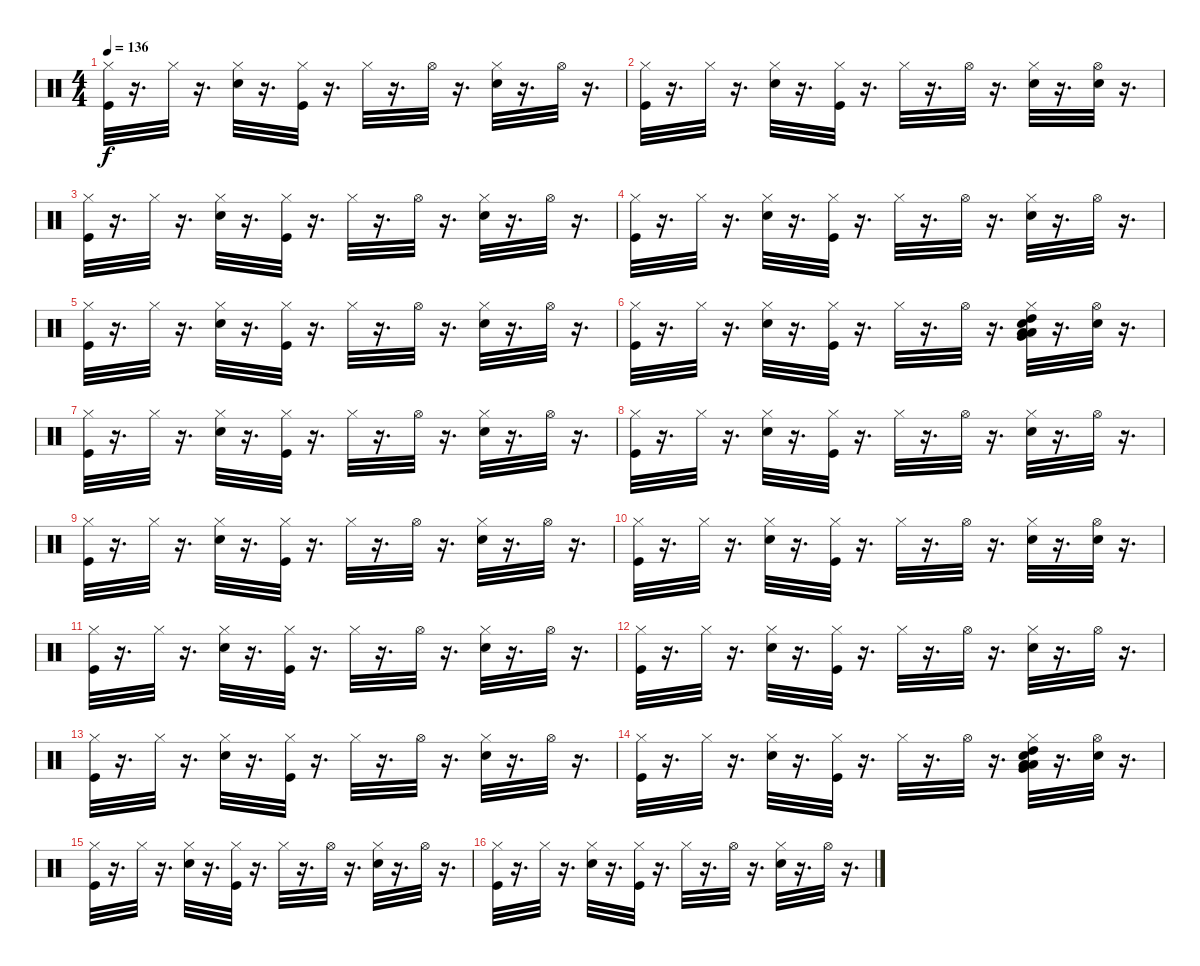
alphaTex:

\track "" {instrument percussion}
\staff {score}
\articulation defaults
\ts (4 4)
\tempo 136
\clef neutral
\ks c
("Kick (hit)" "Hi-Hat (closed)").32{dy f} r.16{d} "Hi-Hat (closed)".32 r.16{d} ("Snare (hit) 2" "Hi-Hat (closed)").32 r.16{d} ("Kick (hit)" "Hi-Hat (closed)").32 r.16{d} "Hi-Hat (closed)".32 r.16{d} "Hi-Hat (open)".32 r.16{d} ("Snare (hit) 2" "Hi-Hat (closed)").32 r.16{d} "Hi-Hat (open)".32 r.16{d} |
("Kick (hit)" "Hi-Hat (closed)").32 r.16{d} "Hi-Hat (closed)".32 r.16{d} ("Snare (hit) 2" "Hi-Hat (closed)").32 r.16{d} ("Kick (hit)" "Hi-Hat (closed)").32 r.16{d} "Hi-Hat (closed)".32 r.16{d} "Hi-Hat (open)".32 r.16{d} ("Snare (hit) 2" "Hi-Hat (closed)").32 r.16{d} ("Snare (hit) 2" "Hi-Hat (open)").32 r.16{d} |
("Kick (hit)" "Hi-Hat (closed)").32 r.16{d} "Hi-Hat (closed)".32 r.16{d} ("Snare (hit) 2" "Hi-Hat (closed)").32 r.16{d} ("Kick (hit)" "Hi-Hat (closed)").32 r.16{d} "Hi-Hat (closed)".32 r.16{d} "Hi-Hat (open)".32 r.16{d} ("Snare (hit) 2" "Hi-Hat (closed)").32 r.16{d} "Hi-Hat (open)".32 r.16{d} |
("Kick (hit)" "Hi-Hat (closed)").32 r.16{d} "Hi-Hat (closed)".32 r.16{d} ("Snare (hit) 2" "Hi-Hat (closed)").32 r.16{d} ("Kick (hit)" "Hi-Hat (closed)").32 r.16{d} "Hi-Hat (closed)".32 r.16{d} "Hi-Hat (open)".32 r.16{d} ("Snare (hit) 2" "Hi-Hat (closed)").32 r.16{d} "Hi-Hat (open)".32 r.16{d} |
("Kick (hit)" "Hi-Hat (closed)").32 r.16{d} "Hi-Hat (closed)".32 r.16{d} ("Snare (hit) 2" "Hi-Hat (closed)").32 r.16{d} ("Kick (hit)" "Hi-Hat (closed)").32 r.16{d} "Hi-Hat (closed)".32 r.16{d} "Hi-Hat (open)".32 r.16{d} ("Snare (hit) 2" "Hi-Hat (closed)").32 r.16{d} "Hi-Hat (open)".32 r.16{d} |
("Kick (hit)" "Hi-Hat (closed)").32 r.16{d} "Hi-Hat (closed)".32 r.16{d} ("Snare (hit) 2" "Hi-Hat (closed)").32 r.16{d} ("Kick (hit)" "Hi-Hat (closed)").32 r.16{d} "Hi-Hat (closed)".32 r.16{d} "Hi-Hat (open)".32 r.16{d} ("High Tom (hit)" "Low Tom (hit)" "Very Low Tom (hit)" "Low Floor Tom (hit)" "Snare (hit) 2" "Hi-Hat (closed)").32 r.16{d} ("Snare (hit) 2" "Hi-Hat (open)").32 r.16{d} |
("Kick (hit)" "Hi-Hat (closed)").32 r.16{d} "Hi-Hat (closed)".32 r.16{d} ("Snare (hit) 2" "Hi-Hat (closed)").32 r.16{d} ("Kick (hit)" "Hi-Hat (closed)").32 r.16{d} "Hi-Hat (closed)".32 r.16{d} "Hi-Hat (open)".32 r.16{d} ("Snare (hit) 2" "Hi-Hat (closed)").32 r.16{d} "Hi-Hat (open)".32 r.16{d} |
("Kick (hit)" "Hi-Hat (closed)").32 r.16{d} "Hi-Hat (closed)".32 r.16{d} ("Snare (hit) 2" "Hi-Hat (closed)").32 r.16{d} ("Kick (hit)" "Hi-Hat (closed)").32 r.16{d} "Hi-Hat (closed)".32 r.16{d} "Hi-Hat (open)".32 r.16{d} ("Snare (hit) 2" "Hi-Hat (closed)").32 r.16{d} "Hi-Hat (open)".32 r.16{d} |
("Kick (hit)" "Hi-Hat (closed)").32 r.16{d} "Hi-Hat (closed)".32 r.16{d} ("Snare (hit) 2" "Hi-Hat (closed)").32 r.16{d} ("Kick (hit)" "Hi-Hat (closed)").32 r.16{d} "Hi-Hat (closed)".32 r.16{d} "Hi-Hat (open)".32 r.16{d} ("Snare (hit) 2" "Hi-Hat (closed)").32 r.16{d} "Hi-Hat (open)".32 r.16{d} |
("Kick (hit)" "Hi-Hat (closed)").32 r.16{d} "Hi-Hat (closed)".32 r.16{d} ("Snare (hit) 2" "Hi-Hat (closed)").32 r.16{d} ("Kick (hit)" "Hi-Hat (closed)").32 r.16{d} "Hi-Hat (closed)".32 r.16{d} "Hi-Hat (open)".32 r.16{d} ("Snare (hit) 2" "Hi-Hat (closed)").32 r.16{d} ("Snare (hit) 2" "Hi-Hat (open)").32 r.16{d} |
("Kick (hit)" "Hi-Hat (closed)").32 r.16{d} "Hi-Hat (closed)".32 r.16{d} ("Snare (hit) 2" "Hi-Hat (closed)").32 r.16{d} ("Kick (hit)" "Hi-Hat (closed)").32 r.16{d} "Hi-Hat (closed)".32 r.16{d} "Hi-Hat (open)".32 r.16{d} ("Snare (hit) 2" "Hi-Hat (closed)").32 r.16{d} "Hi-Hat (open)".32 r.16{d} |
("Kick (hit)" "Hi-Hat (closed)").32 r.16{d} "Hi-Hat (closed)".32 r.16{d} ("Snare (hit) 2" "Hi-Hat (closed)").32 r.16{d} ("Kick (hit)" "Hi-Hat (closed)").32 r.16{d} "Hi-Hat (closed)".32 r.16{d} "Hi-Hat (open)".32 r.16{d} ("Snare (hit) 2" "Hi-Hat (closed)").32 r.16{d} "Hi-Hat (open)".32 r.16{d} |
("Kick (hit)" "Hi-Hat (closed)").32 r.16{d} "Hi-Hat (closed)".32 r.16{d} ("Snare (hit) 2" "Hi-Hat (closed)").32 r.16{d} ("Kick (hit)" "Hi-Hat (closed)").32 r.16{d} "Hi-Hat (closed)".32 r.16{d} "Hi-Hat (open)".32 r.16{d} ("Snare (hit) 2" "Hi-Hat (closed)").32 r.16{d} "Hi-Hat (open)".32 r.16{d} |
("Kick (hit)" "Hi-Hat (closed)").32 r.16{d} "Hi-Hat (closed)".32 r.16{d} ("Snare (hit) 2" "Hi-Hat (closed)").32 r.16{d} ("Kick (hit)" "Hi-Hat (closed)").32 r.16{d} "Hi-Hat (closed)".32 r.16{d} "Hi-Hat (open)".32 r.16{d} ("High Tom (hit)" "Low Tom (hit)" "Very Low Tom (hit)" "Low Floor Tom (hit)" "Snare (hit) 2" "Hi-Hat (closed)").32 r.16{d} ("Snare (hit) 2" "Hi-Hat (open)").32 r.16{d} |
("Kick (hit)" "Hi-Hat (closed)").32 r.16{d} "Hi-Hat (closed)".32 r.16{d} ("Snare (hit) 2" "Hi-Hat (closed)").32 r.16{d} ("Kick (hit)" "Hi-Hat (closed)").32 r.16{d} "Hi-Hat (closed)".32 r.16{d} "Hi-Hat (open)".32 r.16{d} ("Snare (hit) 2" "Hi-Hat (closed)").32 r.16{d} "Hi-Hat (open)".32 r.16{d} |
("Kick (hit)" "Hi-Hat (closed)").32 r.16{d} "Hi-Hat (closed)".32 r.16{d} ("Snare (hit) 2" "Hi-Hat (closed)").32 r.16{d} ("Kick (hit)" "Hi-Hat (closed)").32 r.16{d} "Hi-Hat (closed)".32 r.16{d} "Hi-Hat (open)".32 r.16{d} ("Snare (hit) 2" "Hi-Hat (closed)").32 r.16{d} "Hi-Hat (open)".32 r.16{d}
